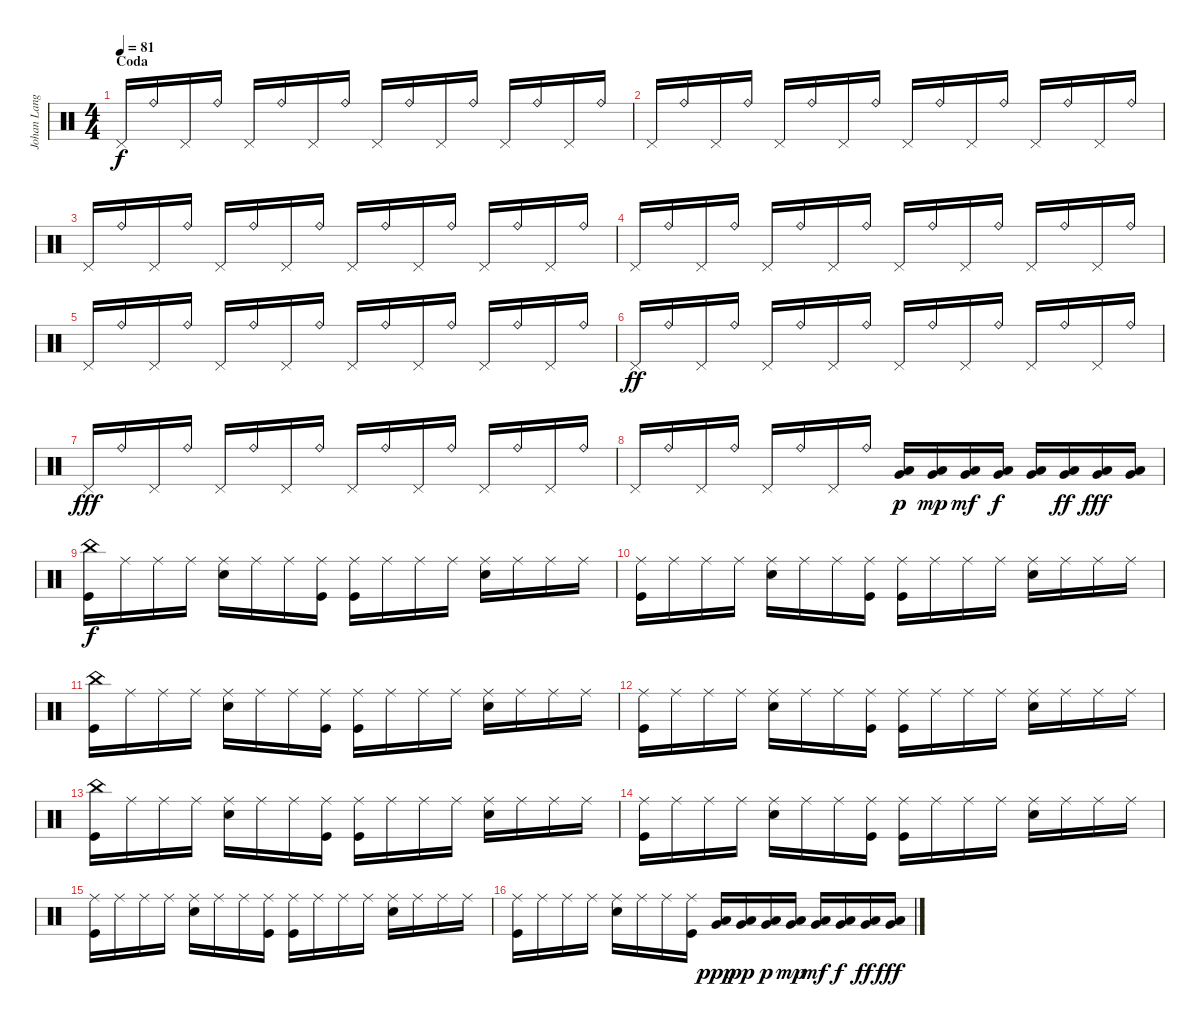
\track ("Johan Langell - drums" "Johan Lang") {instrument percussion}
\staff {score}
\articulation defaults
\ts (4 4)
\section ("" "Coda")
\tempo 81
\clef neutral
\ks c "Pedal Hi-Hat (hit)".16{dy f} "Ride (bell)".16 "Pedal Hi-Hat (hit)".16 "Ride (bell)".16 "Pedal Hi-Hat (hit)".16 "Ride (bell)".16 "Pedal Hi-Hat (hit)".16 "Ride (bell)".16 "Pedal Hi-Hat (hit)".16 "Ride (bell)".16 "Pedal Hi-Hat (hit)".16 "Ride (bell)".16 "Pedal Hi-Hat (hit)".16 "Ride (bell)".16 "Pedal Hi-Hat (hit)".16 "Ride (bell)".16
|
"Pedal Hi-Hat (hit)".16 "Ride (bell)".16 "Pedal Hi-Hat (hit)".16 "Ride (bell)".16 "Pedal Hi-Hat (hit)".16 "Ride (bell)".16 "Pedal Hi-Hat (hit)".16 "Ride (bell)".16 "Pedal Hi-Hat (hit)".16 "Ride (bell)".16 "Pedal Hi-Hat (hit)".16 "Ride (bell)".16 "Pedal Hi-Hat (hit)".16 "Ride (bell)".16 "Pedal Hi-Hat (hit)".16 "Ride (bell)".16 |
"Pedal Hi-Hat (hit)".16 "Ride (bell)".16 "Pedal Hi-Hat (hit)".16 "Ride (bell)".16 "Pedal Hi-Hat (hit)".16 "Ride (bell)".16 "Pedal Hi-Hat (hit)".16 "Ride (bell)".16 "Pedal Hi-Hat (hit)".16 "Ride (bell)".16 "Pedal Hi-Hat (hit)".16 "Ride (bell)".16 "Pedal Hi-Hat (hit)".16 "Ride (bell)".16 "Pedal Hi-Hat (hit)".16 "Ride (bell)".16 |
"Pedal Hi-Hat (hit)".16 "Ride (bell)".16 "Pedal Hi-Hat (hit)".16 "Ride (bell)".16 "Pedal Hi-Hat (hit)".16 "Ride (bell)".16 "Pedal Hi-Hat (hit)".16 "Ride (bell)".16 "Pedal Hi-Hat (hit)".16 "Ride (bell)".16 "Pedal Hi-Hat (hit)".16 "Ride (bell)".16 "Pedal Hi-Hat (hit)".16 "Ride (bell)".16 "Pedal Hi-Hat (hit)".16 "Ride (bell)".16 |
"Pedal Hi-Hat (hit)".16 "Ride (bell)".16 "Pedal Hi-Hat (hit)".16 "Ride (bell)".16 "Pedal Hi-Hat (hit)".16 "Ride (bell)".16 "Pedal Hi-Hat (hit)".16 "Ride (bell)".16 "Pedal Hi-Hat (hit)".16 "Ride (bell)".16 "Pedal Hi-Hat (hit)".16 "Ride (bell)".16 "Pedal Hi-Hat (hit)".16 "Ride (bell)".16 "Pedal Hi-Hat (hit)".16 "Ride (bell)".16 |
"Pedal Hi-Hat (hit)".16{dy ff} "Ride (bell)".16 "Pedal Hi-Hat (hit)".16 "Ride (bell)".16 "Pedal Hi-Hat (hit)".16 "Ride (bell)".16 "Pedal Hi-Hat (hit)".16 "Ride (bell)".16 "Pedal Hi-Hat (hit)".16 "Ride (bell)".16 "Pedal Hi-Hat (hit)".16 "Ride (bell)".16 "Pedal Hi-Hat (hit)".16 "Ride (bell)".16 "Pedal Hi-Hat (hit)".16 "Ride (bell)".16 |
"Pedal Hi-Hat (hit)".16{dy fff} "Ride (bell)".16 "Pedal Hi-Hat (hit)".16 "Ride (bell)".16 "Pedal Hi-Hat (hit)".16 "Ride (bell)".16 "Pedal Hi-Hat (hit)".16 "Ride (bell)".16 "Pedal Hi-Hat (hit)".16 "Ride (bell)".16 "Pedal Hi-Hat (hit)".16 "Ride (bell)".16 "Pedal Hi-Hat (hit)".16 "Ride (bell)".16 "Pedal Hi-Hat (hit)".16 "Ride (bell)".16 |
"Pedal Hi-Hat (hit)".16 "Ride (bell)".16 "Pedal Hi-Hat (hit)".16 "Ride (bell)".16 "Pedal Hi-Hat (hit)".16 "Ride (bell)".16 "Pedal Hi-Hat (hit)".16 "Ride (bell)".16 ("Low Tom (hit)" "Very Low Tom (hit)").16{dy p} ("Low Tom (hit)" "Very Low Tom (hit)").16{dy mp} ("Low Tom (hit)" "Very Low Tom (hit)").16{dy mf} ("Low Tom (hit)" "Very Low Tom (hit)").16{dy f} ("Low Tom (hit)" "Very Low Tom (hit)").16 ("Low Tom (hit)" "Very Low Tom (hit)").16{dy ff} ("Low Tom (hit)" "Very Low Tom (hit)").16{dy fff} ("Low Tom (hit)" "Very Low Tom (hit)").16 |
("China (hit)" "Kick (hit)").16{dy f} "Ride (middle)".16 "Ride (middle)".16 "Ride (middle)".16 ("Ride (middle)" "Electric Snare (hit)").16 "Ride (middle)".16 "Ride (middle)".16 ("Ride (middle)" "Kick (hit)").16 ("Ride (middle)" "Kick (hit)").16 "Ride (middle)".16 "Ride (middle)".16 "Ride (middle)".16 ("Ride (middle)" "Electric Snare (hit)").16 "Ride (middle)".16 "Ride (middle)".16 "Ride (middle)".16 |
("Ride (middle)" "Kick (hit)").16 "Ride (middle)".16 "Ride (middle)".16 "Ride (middle)".16 ("Ride (middle)" "Electric Snare (hit)").16 "Ride (middle)".16 "Ride (middle)".16 ("Ride (middle)" "Kick (hit)").16 ("Ride (middle)" "Kick (hit)").16 "Ride (middle)".16 "Ride (middle)".16 "Ride (middle)".16 ("Ride (middle)" "Electric Snare (hit)").16 "Ride (middle)".16 "Ride (middle)".16 "Ride (middle)".16 |
("China (hit)" "Kick (hit)").16 "Ride (middle)".16 "Ride (middle)".16 "Ride (middle)".16 ("Ride (middle)" "Electric Snare (hit)").16 "Ride (middle)".16 "Ride (middle)".16 ("Ride (middle)" "Kick (hit)").16 ("Ride (middle)" "Kick (hit)").16 "Ride (middle)".16 "Ride (middle)".16 "Ride (middle)".16 ("Ride (middle)" "Electric Snare (hit)").16 "Ride (middle)".16 "Ride (middle)".16 "Ride (middle)".16 |
("Ride (middle)" "Kick (hit)").16 "Ride (middle)".16 "Ride (middle)".16 "Ride (middle)".16 ("Ride (middle)" "Electric Snare (hit)").16 "Ride (middle)".16 "Ride (middle)".16 ("Ride (middle)" "Kick (hit)").16 ("Ride (middle)" "Kick (hit)").16 "Ride (middle)".16 "Ride (middle)".16 "Ride (middle)".16 ("Ride (middle)" "Electric Snare (hit)").16 "Ride (middle)".16 "Ride (middle)".16 "Ride (middle)".16 |
("China (hit)" "Kick (hit)").16 "Ride (middle)".16 "Ride (middle)".16 "Ride (middle)".16 ("Ride (middle)" "Electric Snare (hit)").16 "Ride (middle)".16 "Ride (middle)".16 ("Ride (middle)" "Kick (hit)").16 ("Ride (middle)" "Kick (hit)").16 "Ride (middle)".16 "Ride (middle)".16 "Ride (middle)".16 ("Ride (middle)" "Electric Snare (hit)").16 "Ride (middle)".16 "Ride (middle)".16 "Ride (middle)".16 |
("Ride (middle)" "Kick (hit)").16 "Ride (middle)".16 "Ride (middle)".16 "Ride (middle)".16 ("Ride (middle)" "Electric Snare (hit)").16 "Ride (middle)".16 "Ride (middle)".16 ("Ride (middle)" "Kick (hit)").16 ("Ride (middle)" "Kick (hit)").16 "Ride (middle)".16 "Ride (middle)".16 "Ride (middle)".16 ("Ride (middle)" "Electric Snare (hit)").16 "Ride (middle)".16 "Ride (middle)".16 "Ride (middle)".16 |
("Ride (middle)" "Kick (hit)").16 "Ride (middle)".16 "Ride (middle)".16 "Ride (middle)".16 ("Ride (middle)" "Electric Snare (hit)").16 "Ride (middle)".16 "Ride (middle)".16 ("Ride (middle)" "Kick (hit)").16 ("Ride (middle)" "Kick (hit)").16 "Ride (middle)".16 "Ride (middle)".16 "Ride (middle)".16 ("Ride (middle)" "Electric Snare (hit)").16 "Ride (middle)".16 "Ride (middle)".16 "Ride (middle)".16 |
("Ride (middle)" "Kick (hit)").16 "Ride (middle)".16 "Ride (middle)".16 "Ride (middle)".16 ("Ride (middle)" "Electric Snare (hit)").16 "Ride (middle)".16 "Ride (middle)".16 ("Ride (middle)" "Kick (hit)").16 ("Low Tom (hit)" "Very Low Tom (hit)").16{dy ppp} ("Low Tom (hit)" "Very Low Tom (hit)").16{dy pp} ("Low Tom (hit)" "Very Low Tom (hit)").16{dy p} ("Low Tom (hit)" "Very Low Tom (hit)").16{dy mp} ("Low Tom (hit)" "Very Low Tom (hit)").16{dy mf} ("Low Tom (hit)" "Very Low Tom (hit)").16{dy f} ("Low Tom (hit)" "Very Low Tom (hit)").16{dy ff} ("Low Tom (hit)" "Very Low Tom (hit)").16{dy fff}
